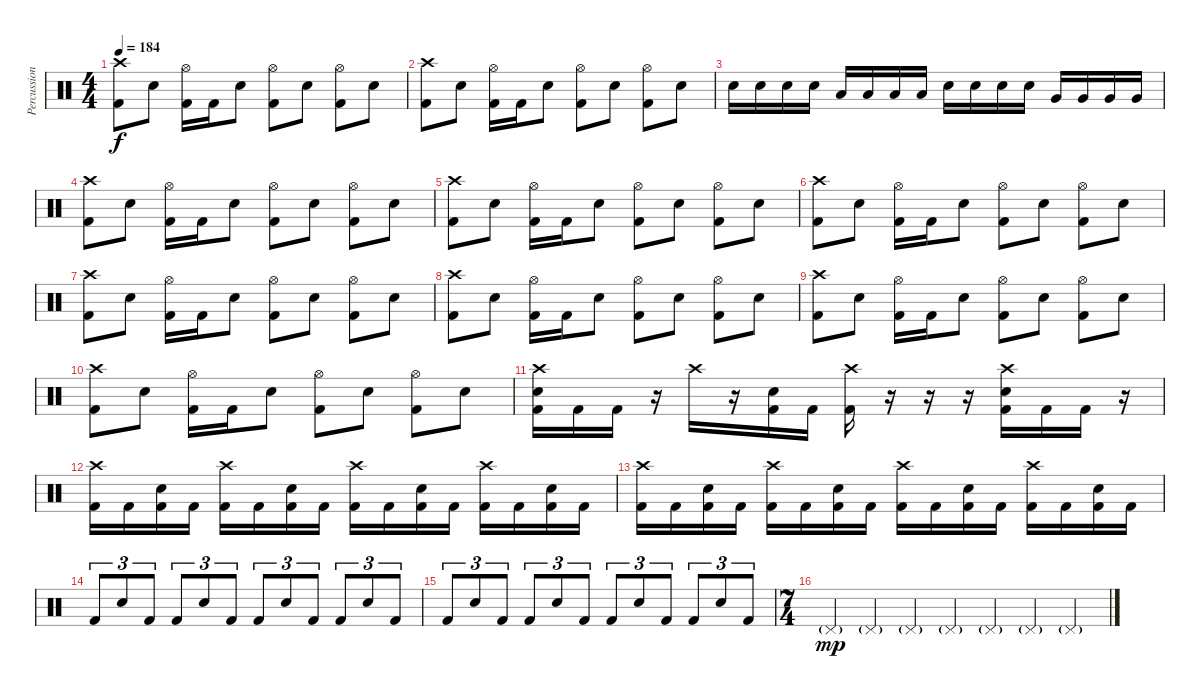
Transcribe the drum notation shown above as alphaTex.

\track ("Percussion" "Percussion") {instrument percussion}
\staff {score}
\articulation defaults
\ts (4 4)
\tempo 184
\clef neutral
\ks c
("Crash high (hit)" "Kick (hit) 2").8{dy f} "Electric Snare (hit)".8 ("Hi-Hat (open)" "Kick (hit) 2").16 "Kick (hit) 2".16 "Electric Snare (hit)".8 ("Hi-Hat (open)" "Kick (hit) 2").8 "Electric Snare (hit)".8 ("Hi-Hat (open)" "Kick (hit) 2").8 "Electric Snare (hit)".8 |
("Crash high (hit)" "Kick (hit) 2").8 "Electric Snare (hit)".8 ("Hi-Hat (open)" "Kick (hit) 2").16 "Kick (hit) 2".16 "Electric Snare (hit)".8 ("Hi-Hat (open)" "Kick (hit) 2").8 "Electric Snare (hit)".8 ("Hi-Hat (open)" "Kick (hit) 2").8 "Electric Snare (hit)".8 |
"Electric Snare (hit)".16 "Electric Snare (hit)".16 "Electric Snare (hit)".16 "Electric Snare (hit)".16 "Low Tom (hit)".16 "Low Tom (hit)".16 "Low Tom (hit)".16 "Low Tom (hit)".16 "Electric Snare (hit)".16 "Electric Snare (hit)".16 "Electric Snare (hit)".16 "Electric Snare (hit)".16 "Very Low Tom (hit)".16 "Very Low Tom (hit)".16 "Very Low Tom (hit)".16 "Very Low Tom (hit)".16 |
("Crash high (hit)" "Kick (hit) 2").8 "Electric Snare (hit)".8 ("Hi-Hat (open)" "Kick (hit) 2").16 "Kick (hit) 2".16 "Electric Snare (hit)".8 ("Hi-Hat (open)" "Kick (hit) 2").8 "Electric Snare (hit)".8 ("Hi-Hat (open)" "Kick (hit) 2").8 "Electric Snare (hit)".8 |
("Crash high (hit)" "Kick (hit) 2").8 "Electric Snare (hit)".8 ("Hi-Hat (open)" "Kick (hit) 2").16 "Kick (hit) 2".16 "Electric Snare (hit)".8 ("Hi-Hat (open)" "Kick (hit) 2").8 "Electric Snare (hit)".8 ("Hi-Hat (open)" "Kick (hit) 2").8 "Electric Snare (hit)".8 |
("Crash high (hit)" "Kick (hit) 2").8 "Electric Snare (hit)".8 ("Hi-Hat (open)" "Kick (hit) 2").16 "Kick (hit) 2".16 "Electric Snare (hit)".8 ("Hi-Hat (open)" "Kick (hit) 2").8 "Electric Snare (hit)".8 ("Hi-Hat (open)" "Kick (hit) 2").8 "Electric Snare (hit)".8 |
("Crash high (hit)" "Kick (hit) 2").8 "Electric Snare (hit)".8 ("Hi-Hat (open)" "Kick (hit) 2").16 "Kick (hit) 2".16 "Electric Snare (hit)".8 ("Hi-Hat (open)" "Kick (hit) 2").8 "Electric Snare (hit)".8 ("Hi-Hat (open)" "Kick (hit) 2").8 "Electric Snare (hit)".8 |
("Crash high (hit)" "Kick (hit) 2").8 "Electric Snare (hit)".8 ("Hi-Hat (open)" "Kick (hit) 2").16 "Kick (hit) 2".16 "Electric Snare (hit)".8 ("Hi-Hat (open)" "Kick (hit) 2").8 "Electric Snare (hit)".8 ("Hi-Hat (open)" "Kick (hit) 2").8 "Electric Snare (hit)".8 |
("Crash high (hit)" "Kick (hit) 2").8 "Electric Snare (hit)".8 ("Hi-Hat (open)" "Kick (hit) 2").16 "Kick (hit) 2".16 "Electric Snare (hit)".8 ("Hi-Hat (open)" "Kick (hit) 2").8 "Electric Snare (hit)".8 ("Hi-Hat (open)" "Kick (hit) 2").8 "Electric Snare (hit)".8 |
("Crash high (hit)" "Kick (hit) 2").8 "Electric Snare (hit)".8 ("Hi-Hat (open)" "Kick (hit) 2").16 "Kick (hit) 2".16 "Electric Snare (hit)".8 ("Hi-Hat (open)" "Kick (hit) 2").8 "Electric Snare (hit)".8 ("Hi-Hat (open)" "Kick (hit) 2").8 "Electric Snare (hit)".8 |
("Crash high (hit)" "Electric Snare (hit)" "Kick (hit) 2").16 "Kick (hit) 2".16 "Kick (hit) 2".16 r.16 "Crash high (hit)".16 r.16 ("Electric Snare (hit)" "Kick (hit) 2").16 "Kick (hit) 2".16 ("Crash high (hit)" "Kick (hit) 2").16 r.16 r.16 r.16 ("Crash high (hit)" "Electric Snare (hit)" "Kick (hit) 2").16 "Kick (hit) 2".16 "Kick (hit) 2".16 r.16 |
("Crash high (hit)" "Kick (hit) 2").16 "Kick (hit) 2".16 ("Electric Snare (hit)" "Kick (hit) 2").16 "Kick (hit) 2".16 ("Crash high (hit)" "Kick (hit) 2").16 "Kick (hit) 2".16 ("Electric Snare (hit)" "Kick (hit) 2").16 "Kick (hit) 2".16 ("Crash high (hit)" "Kick (hit) 2").16 "Kick (hit) 2".16 ("Electric Snare (hit)" "Kick (hit) 2").16 "Kick (hit) 2".16 ("Crash high (hit)" "Kick (hit) 2").16 "Kick (hit) 2".16 ("Electric Snare (hit)" "Kick (hit) 2").16 "Kick (hit) 2".16 |
("Crash high (hit)" "Kick (hit) 2").16 "Kick (hit) 2".16 ("Electric Snare (hit)" "Kick (hit) 2").16 "Kick (hit) 2".16 ("Crash high (hit)" "Kick (hit) 2").16 "Kick (hit) 2".16 ("Electric Snare (hit)" "Kick (hit) 2").16 "Kick (hit) 2".16 ("Crash high (hit)" "Kick (hit) 2").16 "Kick (hit) 2".16 ("Electric Snare (hit)" "Kick (hit) 2").16 "Kick (hit) 2".16 ("Crash high (hit)" "Kick (hit) 2").16 "Kick (hit) 2".16 ("Electric Snare (hit)" "Kick (hit) 2").16 "Kick (hit) 2".16 |
"Kick (hit) 2".8{tu (3 2)} "Electric Snare (hit)".8{tu (3 2)} "Kick (hit) 2".8{tu (3 2)} "Kick (hit) 2".8{tu (3 2)} "Electric Snare (hit)".8{tu (3 2)} "Kick (hit) 2".8{tu (3 2)} "Kick (hit) 2".8{tu (3 2)} "Electric Snare (hit)".8{tu (3 2)} "Kick (hit) 2".8{tu (3 2)} "Kick (hit) 2".8{tu (3 2)} "Electric Snare (hit)".8{tu (3 2)} "Kick (hit) 2".8{tu (3 2)} |
"Kick (hit) 2".8{tu (3 2)} "Electric Snare (hit)".8{tu (3 2)} "Kick (hit) 2".8{tu (3 2)} "Kick (hit) 2".8{tu (3 2)} "Electric Snare (hit)".8{tu (3 2)} "Kick (hit) 2".8{tu (3 2)} "Kick (hit) 2".8{tu (3 2)} "Electric Snare (hit)".8{tu (3 2)} "Kick (hit) 2".8{tu (3 2)} "Kick (hit) 2".8{tu (3 2)} "Electric Snare (hit)".8{tu (3 2)} "Kick (hit) 2".8{tu (3 2)} |
\ts (7 4)
"Pedal Hi-Hat (hit)"{g}.4{dy mp} "Pedal Hi-Hat (hit)"{g}.4 "Pedal Hi-Hat (hit)"{g}.4 "Pedal Hi-Hat (hit)"{g}.4 "Pedal Hi-Hat (hit)"{g}.4 "Pedal Hi-Hat (hit)"{g}.4 "Pedal Hi-Hat (hit)"{g}.4
